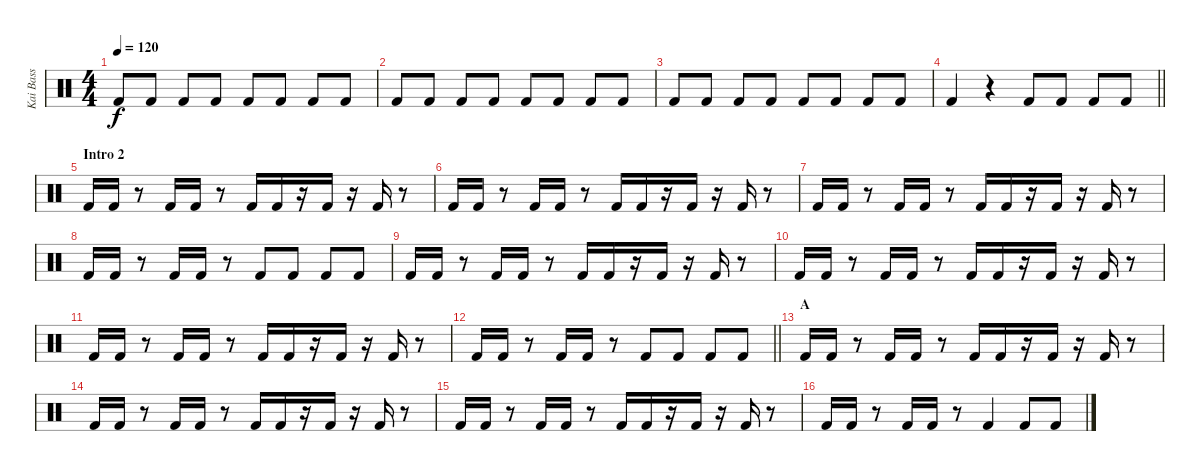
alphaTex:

\track ("Kai Bass" "Kai Bass") {instrument percussion}
\staff {score}
\articulation defaults
\ts (4 4)
\tempo 120
\clef neutral
\ks c "Kick (hit) 2".8{dy f} "Kick (hit) 2".8 "Kick (hit) 2".8 "Kick (hit) 2".8 "Kick (hit) 2".8 "Kick (hit) 2".8 "Kick (hit) 2".8 "Kick (hit) 2".8
|
"Kick (hit) 2".8 "Kick (hit) 2".8 "Kick (hit) 2".8 "Kick (hit) 2".8 "Kick (hit) 2".8 "Kick (hit) 2".8 "Kick (hit) 2".8 "Kick (hit) 2".8 |
"Kick (hit) 2".8 "Kick (hit) 2".8 "Kick (hit) 2".8 "Kick (hit) 2".8 "Kick (hit) 2".8 "Kick (hit) 2".8 "Kick (hit) 2".8 "Kick (hit) 2".8 |
\barLineRight lightlight "Kick (hit) 2".4
r.4 "Kick (hit) 2".8 "Kick (hit) 2".8 "Kick (hit) 2".8 "Kick (hit) 2".8 |
\section ("" "Intro 2")
"Kick (hit) 2".16 "Kick (hit) 2".16 r.8 "Kick (hit) 2".16 "Kick (hit) 2".16 r.8 "Kick (hit) 2".16 "Kick (hit) 2".16 r.16 "Kick (hit) 2".16 r.16 "Kick (hit) 2".16 r.8 |
"Kick (hit) 2".16 "Kick (hit) 2".16 r.8 "Kick (hit) 2".16 "Kick (hit) 2".16 r.8 "Kick (hit) 2".16 "Kick (hit) 2".16 r.16 "Kick (hit) 2".16 r.16 "Kick (hit) 2".16 r.8 |
"Kick (hit) 2".16 "Kick (hit) 2".16 r.8 "Kick (hit) 2".16 "Kick (hit) 2".16 r.8 "Kick (hit) 2".16 "Kick (hit) 2".16 r.16 "Kick (hit) 2".16 r.16 "Kick (hit) 2".16 r.8 |
"Kick (hit) 2".16 "Kick (hit) 2".16 r.8 "Kick (hit) 2".16 "Kick (hit) 2".16 r.8 "Kick (hit) 2".8 "Kick (hit) 2".8 "Kick (hit) 2".8 "Kick (hit) 2".8 |
"Kick (hit) 2".16 "Kick (hit) 2".16 r.8 "Kick (hit) 2".16 "Kick (hit) 2".16 r.8 "Kick (hit) 2".16 "Kick (hit) 2".16 r.16 "Kick (hit) 2".16 r.16 "Kick (hit) 2".16 r.8 |
"Kick (hit) 2".16 "Kick (hit) 2".16 r.8 "Kick (hit) 2".16 "Kick (hit) 2".16 r.8 "Kick (hit) 2".16 "Kick (hit) 2".16 r.16 "Kick (hit) 2".16 r.16 "Kick (hit) 2".16 r.8 |
"Kick (hit) 2".16 "Kick (hit) 2".16 r.8 "Kick (hit) 2".16 "Kick (hit) 2".16 r.8 "Kick (hit) 2".16 "Kick (hit) 2".16 r.16 "Kick (hit) 2".16 r.16 "Kick (hit) 2".16 r.8 |
\barLineRight lightlight "Kick (hit) 2".16 "Kick (hit) 2".16
r.8 "Kick (hit) 2".16 "Kick (hit) 2".16 r.8 "Kick (hit) 2".8 "Kick (hit) 2".8 "Kick (hit) 2".8 "Kick (hit) 2".8 |
\section ("" "A")
"Kick (hit) 2".16 "Kick (hit) 2".16 r.8 "Kick (hit) 2".16 "Kick (hit) 2".16 r.8 "Kick (hit) 2".16 "Kick (hit) 2".16 r.16 "Kick (hit) 2".16 r.16 "Kick (hit) 2".16 r.8 |
"Kick (hit) 2".16 "Kick (hit) 2".16 r.8 "Kick (hit) 2".16 "Kick (hit) 2".16 r.8 "Kick (hit) 2".16 "Kick (hit) 2".16 r.16 "Kick (hit) 2".16 r.16 "Kick (hit) 2".16 r.8 |
"Kick (hit) 2".16 "Kick (hit) 2".16 r.8 "Kick (hit) 2".16 "Kick (hit) 2".16 r.8 "Kick (hit) 2".16 "Kick (hit) 2".16 r.16 "Kick (hit) 2".16 r.16 "Kick (hit) 2".16 r.8 |
"Kick (hit) 2".16 "Kick (hit) 2".16 r.8 "Kick (hit) 2".16 "Kick (hit) 2".16 r.8 "Kick (hit) 2".4 "Kick (hit) 2".8 "Kick (hit) 2".8
